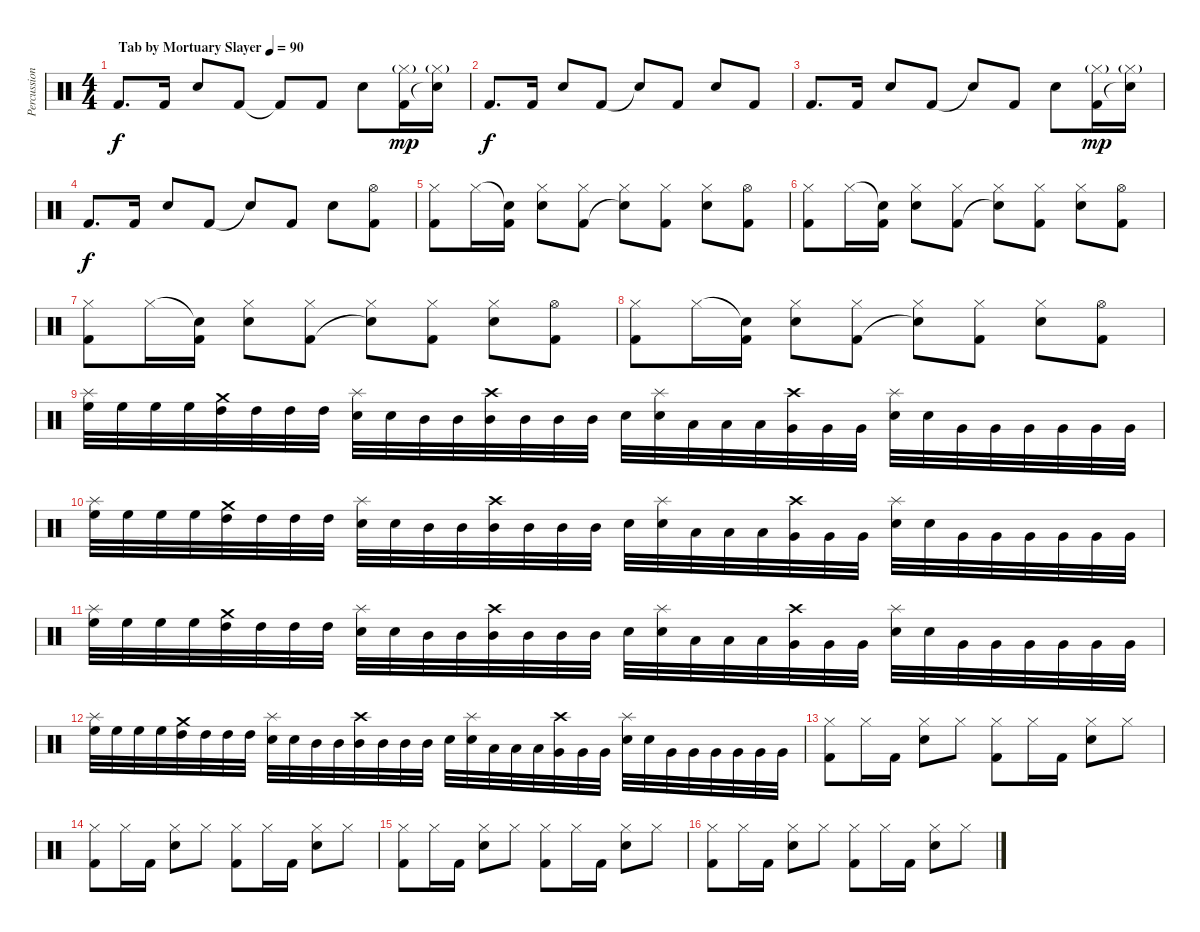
\track ("Percussions" "Percussion") {instrument percussion}
\staff {score}
\articulation defaults
\ts (4 4)
\tempo (90 "Tab by Mortuary Slayer")
\clef neutral
\ks c "Kick (hit) 2".8{d dy f} "Kick (hit) 2".16 "Electric Snare (hit)".8 "Kick (hit) 2".8 "Kick (hit) 2"{t}.8 "Kick (hit) 2".8 "Electric Snare (hit)".8
("Hi-Hat (closed)"{g} "Kick (hit) 2").16{dy mp} ("Hi-Hat (closed)"{g} "Snare (hit)"{t}).16 |
"Kick (hit) 2".8{d dy f} "Kick (hit) 2".16 "Electric Snare (hit)".8 "Kick (hit) 2".8 "Snare (hit)"{t}.8 "Kick (hit) 2".8 "Electric Snare (hit)".8 "Kick (hit) 2".8 |
"Kick (hit) 2".8{d} "Kick (hit) 2".16 "Electric Snare (hit)".8 "Kick (hit) 2".8 "Snare (hit)"{t}.8 "Kick (hit) 2".8 "Electric Snare (hit)".8 ("Hi-Hat (closed)"{g} "Kick (hit) 2").16{dy mp} ("Hi-Hat (closed)"{g} "Snare (hit)"{t}).16 |
"Kick (hit) 2".8{d dy f} "Kick (hit) 2".16 "Electric Snare (hit)".8 "Kick (hit) 2".8 "Snare (hit)"{t}.8 "Kick (hit) 2".8 "Electric Snare (hit)".8 ("Hi-Hat (open)" "Kick (hit) 2").8 |
("Hi-Hat (closed)" "Kick (hit) 2").8 "Hi-Hat (closed)".16 ("Snare (hit)"{t} "Kick (hit) 2").16 ("Hi-Hat (closed)" "Electric Snare (hit)").8 ("Hi-Hat (closed)" "Kick (hit) 2").8 ("Hi-Hat (closed)" "Snare (hit)"{t}).8 ("Hi-Hat (closed)" "Kick (hit) 2").8 ("Hi-Hat (closed)" "Electric Snare (hit)").8 ("Hi-Hat (open)" "Kick (hit) 2").8 |
("Hi-Hat (closed)" "Kick (hit) 2").8 "Hi-Hat (closed)".16 ("Snare (hit)"{t} "Kick (hit) 2").16 ("Hi-Hat (closed)" "Electric Snare (hit)").8 ("Hi-Hat (closed)" "Kick (hit) 2").8 ("Hi-Hat (closed)" "Snare (hit)"{t}).8 ("Hi-Hat (closed)" "Kick (hit) 2").8 ("Hi-Hat (closed)" "Electric Snare (hit)").8 ("Hi-Hat (open)" "Kick (hit) 2").8 |
("Hi-Hat (closed)" "Kick (hit) 2").8 "Hi-Hat (closed)".16 ("Snare (hit)"{t} "Kick (hit) 2").16 ("Hi-Hat (closed)" "Electric Snare (hit)").8 ("Hi-Hat (closed)" "Kick (hit) 2").8 ("Hi-Hat (closed)" "Snare (hit)"{t}).8 ("Hi-Hat (closed)" "Kick (hit) 2").8 ("Hi-Hat (closed)" "Electric Snare (hit)").8 ("Hi-Hat (open)" "Kick (hit) 2").8 |
("Hi-Hat (closed)" "Kick (hit) 2").8 "Hi-Hat (closed)".16 ("Snare (hit)"{t} "Kick (hit) 2").16 ("Hi-Hat (closed)" "Electric Snare (hit)").8 ("Hi-Hat (closed)" "Kick (hit) 2").8 ("Hi-Hat (closed)" "Snare (hit)"{t}).8 ("Hi-Hat (closed)" "Kick (hit) 2").8 ("Hi-Hat (closed)" "Electric Snare (hit)").8 ("Hi-Hat (open)" "Kick (hit) 2").8 |
("Splash (hit)" "High Floor Tom (hit)").32 "High Floor Tom (hit)".32 "High Floor Tom (hit)".32 "High Floor Tom (hit)".32 ("Crash medium (hit)" "High Tom (hit)").32 "High Tom (hit)".32 "High Tom (hit)".32 "High Tom (hit)".32 ("Splash (hit)" "Electric Snare (hit)").32 "Electric Snare (hit)".32 "Mid Tom (hit)".32 "Mid Tom (hit)".32 ("Crash high (hit)" "Mid Tom (hit)").32 "Mid Tom (hit)".32 "Mid Tom (hit)".32 "Mid Tom (hit)".32 "Electric Snare (hit)".32 ("Splash (hit)" "Electric Snare (hit)").32 "Low Tom (hit)".32 "Low Tom (hit)".32 "Low Tom (hit)".32 ("Crash high (hit)" "Very Low Tom (hit)").32 "Very Low Tom (hit)".32 "Very Low Tom (hit)".32 ("Splash (hit)" "Electric Snare (hit)").32 "Electric Snare (hit)".32 "Very Low Tom (hit)".32 "Very Low Tom (hit)".32 "Very Low Tom (hit)".32 "Very Low Tom (hit)".32 "Very Low Tom (hit)".32 "Very Low Tom (hit)".32 |
("Splash (hit)" "High Floor Tom (hit)").32 "High Floor Tom (hit)".32 "High Floor Tom (hit)".32 "High Floor Tom (hit)".32 ("Crash medium (hit)" "High Tom (hit)").32 "High Tom (hit)".32 "High Tom (hit)".32 "High Tom (hit)".32 ("Splash (hit)" "Electric Snare (hit)").32 "Electric Snare (hit)".32 "Mid Tom (hit)".32 "Mid Tom (hit)".32 ("Crash high (hit)" "Mid Tom (hit)").32 "Mid Tom (hit)".32 "Mid Tom (hit)".32 "Mid Tom (hit)".32 "Electric Snare (hit)".32 ("Splash (hit)" "Electric Snare (hit)").32 "Low Tom (hit)".32 "Low Tom (hit)".32 "Low Tom (hit)".32 ("Crash high (hit)" "Very Low Tom (hit)").32 "Very Low Tom (hit)".32 "Very Low Tom (hit)".32 ("Splash (hit)" "Electric Snare (hit)").32 "Electric Snare (hit)".32 "Very Low Tom (hit)".32 "Very Low Tom (hit)".32 "Very Low Tom (hit)".32 "Very Low Tom (hit)".32 "Very Low Tom (hit)".32 "Very Low Tom (hit)".32 |
("Splash (hit)" "High Floor Tom (hit)").32 "High Floor Tom (hit)".32 "High Floor Tom (hit)".32 "High Floor Tom (hit)".32 ("Crash medium (hit)" "High Tom (hit)").32 "High Tom (hit)".32 "High Tom (hit)".32 "High Tom (hit)".32 ("Splash (hit)" "Electric Snare (hit)").32 "Electric Snare (hit)".32 "Mid Tom (hit)".32 "Mid Tom (hit)".32 ("Crash high (hit)" "Mid Tom (hit)").32 "Mid Tom (hit)".32 "Mid Tom (hit)".32 "Mid Tom (hit)".32 "Electric Snare (hit)".32 ("Splash (hit)" "Electric Snare (hit)").32 "Low Tom (hit)".32 "Low Tom (hit)".32 "Low Tom (hit)".32 ("Crash high (hit)" "Very Low Tom (hit)").32 "Very Low Tom (hit)".32 "Very Low Tom (hit)".32 ("Splash (hit)" "Electric Snare (hit)").32 "Electric Snare (hit)".32 "Very Low Tom (hit)".32 "Very Low Tom (hit)".32 "Very Low Tom (hit)".32 "Very Low Tom (hit)".32 "Very Low Tom (hit)".32 "Very Low Tom (hit)".32 |
("Splash (hit)" "High Floor Tom (hit)").32 "High Floor Tom (hit)".32 "High Floor Tom (hit)".32 "High Floor Tom (hit)".32 ("Crash medium (hit)" "High Tom (hit)").32 "High Tom (hit)".32 "High Tom (hit)".32 "High Tom (hit)".32 ("Splash (hit)" "Electric Snare (hit)").32 "Electric Snare (hit)".32 "Mid Tom (hit)".32 "Mid Tom (hit)".32 ("Crash high (hit)" "Mid Tom (hit)").32 "Mid Tom (hit)".32 "Mid Tom (hit)".32 "Mid Tom (hit)".32 "Electric Snare (hit)".32 ("Splash (hit)" "Electric Snare (hit)").32 "Low Tom (hit)".32 "Low Tom (hit)".32 "Low Tom (hit)".32 ("Crash high (hit)" "Very Low Tom (hit)").32 "Very Low Tom (hit)".32 "Very Low Tom (hit)".32 ("Splash (hit)" "Electric Snare (hit)").32 "Electric Snare (hit)".32 "Very Low Tom (hit)".32 "Very Low Tom (hit)".32 "Very Low Tom (hit)".32 "Very Low Tom (hit)".32 "Very Low Tom (hit)".32 "Very Low Tom (hit)".32 |
("Hi-Hat (closed)" "Kick (hit) 2").8 "Hi-Hat (closed)".16 "Kick (hit) 2".16 ("Hi-Hat (closed)" "Electric Snare (hit)").8 "Hi-Hat (closed)".8 ("Hi-Hat (closed)" "Kick (hit) 2").8 "Hi-Hat (closed)".16 "Kick (hit) 2".16 ("Hi-Hat (closed)" "Electric Snare (hit)").8 "Hi-Hat (closed)".8 |
("Hi-Hat (closed)" "Kick (hit) 2").8 "Hi-Hat (closed)".16 "Kick (hit) 2".16 ("Hi-Hat (closed)" "Electric Snare (hit)").8 "Hi-Hat (closed)".8 ("Hi-Hat (closed)" "Kick (hit) 2").8 "Hi-Hat (closed)".16 "Kick (hit) 2".16 ("Hi-Hat (closed)" "Electric Snare (hit)").8 "Hi-Hat (closed)".8 |
("Hi-Hat (closed)" "Kick (hit) 2").8 "Hi-Hat (closed)".16 "Kick (hit) 2".16 ("Hi-Hat (closed)" "Electric Snare (hit)").8 "Hi-Hat (closed)".8 ("Hi-Hat (closed)" "Kick (hit) 2").8 "Hi-Hat (closed)".16 "Kick (hit) 2".16 ("Hi-Hat (closed)" "Electric Snare (hit)").8 "Hi-Hat (closed)".8 |
("Hi-Hat (closed)" "Kick (hit) 2").8 "Hi-Hat (closed)".16 "Kick (hit) 2".16 ("Hi-Hat (closed)" "Electric Snare (hit)").8 "Hi-Hat (closed)".8 ("Hi-Hat (closed)" "Kick (hit) 2").8 "Hi-Hat (closed)".16 "Kick (hit) 2".16 ("Hi-Hat (closed)" "Electric Snare (hit)").8 "Hi-Hat (closed)".8
